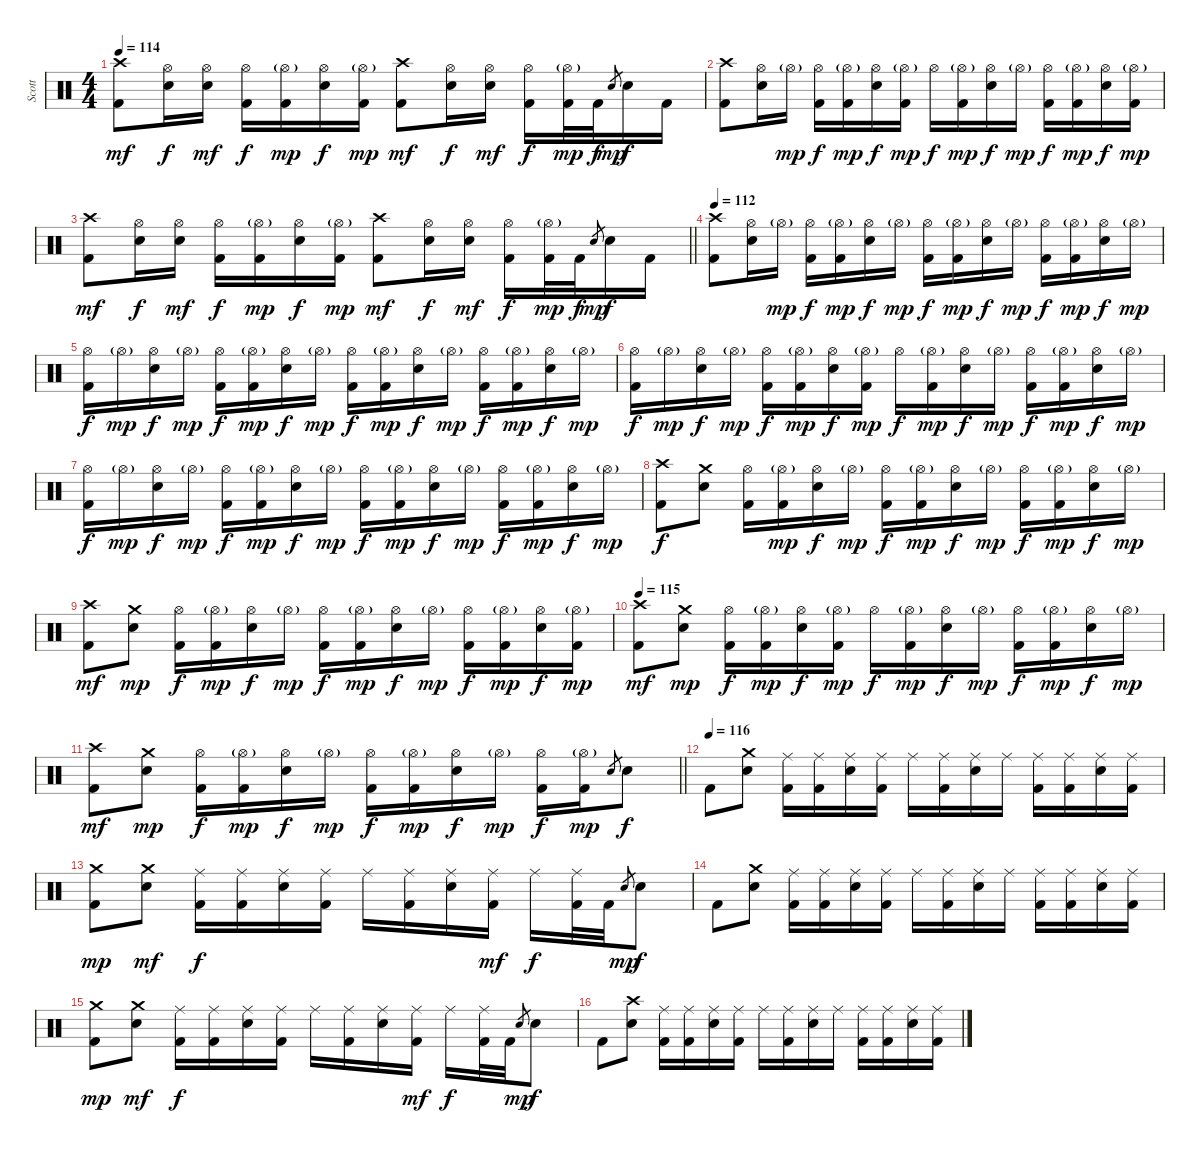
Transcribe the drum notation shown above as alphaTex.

\track ("Scott" "Scott") {instrument percussion}
\staff {score}
\articulation defaults
\ts (4 4)
\tempo 114
\clef neutral
\ks c
("Crash high (hit)" "Kick (hit) 2").8{dy mf} ("Hi-Hat (open)" "Electric Snare (hit)").16{dy f} ("Hi-Hat (open)" "Electric Snare (hit)").16{dy mf} ("Hi-Hat (open)" "Kick (hit) 2").16{dy f} ("Hi-Hat (open)"{g} "Kick (hit) 2").16{dy mp} ("Hi-Hat (open)" "Electric Snare (hit)").16{dy f} ("Hi-Hat (open)"{g} "Kick (hit) 2").16{dy mp} ("Crash high (hit)" "Kick (hit) 2").8{dy mf} ("Hi-Hat (open)" "Electric Snare (hit)").16{dy f} ("Hi-Hat (open)" "Electric Snare (hit)").16{dy mf} ("Hi-Hat (open)" "Kick (hit) 2").16{dy f} ("Hi-Hat (open)"{g} "Kick (hit) 2").32{dy mp} "Kick (hit) 2".32{dy f} "Electric Snare (hit)".8{gr dy mp} "Electric Snare (hit)".16{dy f} "Kick (hit) 2".16 |
("Crash high (hit)" "Kick (hit) 2").8 ("Hi-Hat (open)" "Electric Snare (hit)").16 "Hi-Hat (open)"{g}.16{dy mp} ("Hi-Hat (open)" "Kick (hit) 2").16{dy f} ("Hi-Hat (open)"{g} "Kick (hit) 2").16{dy mp} ("Hi-Hat (open)" "Electric Snare (hit)").16{dy f} ("Hi-Hat (open)"{g} "Kick (hit) 2").16{dy mp} "Hi-Hat (open)".16{dy f} ("Hi-Hat (open)"{g} "Kick (hit) 2").16{dy mp} ("Hi-Hat (open)" "Electric Snare (hit)").16{dy f} "Hi-Hat (open)"{g}.16{dy mp} ("Hi-Hat (open)" "Kick (hit) 2").16{dy f} ("Hi-Hat (open)"{g} "Kick (hit) 2").16{dy mp} ("Hi-Hat (open)" "Electric Snare (hit)").16{dy f} ("Hi-Hat (open)"{g} "Kick (hit) 2").16{dy mp} |
\barLineRight lightlight
("Crash high (hit)" "Kick (hit) 2").8{dy mf} ("Hi-Hat (open)" "Electric Snare (hit)").16{dy f} ("Hi-Hat (open)" "Electric Snare (hit)").16{dy mf} ("Hi-Hat (open)" "Kick (hit) 2").16{dy f} ("Hi-Hat (open)"{g} "Kick (hit) 2").16{dy mp} ("Hi-Hat (open)" "Electric Snare (hit)").16{dy f} ("Hi-Hat (open)"{g} "Kick (hit) 2").16{dy mp} ("Crash high (hit)" "Kick (hit) 2").8{dy mf} ("Hi-Hat (open)" "Electric Snare (hit)").16{dy f} ("Hi-Hat (open)" "Electric Snare (hit)").16{dy mf} ("Hi-Hat (open)" "Kick (hit) 2").16{dy f} ("Hi-Hat (open)"{g} "Kick (hit) 2").32{dy mp} "Kick (hit) 2".32{dy f} "Electric Snare (hit)".8{gr dy mp} "Electric Snare (hit)".16{dy f} "Kick (hit) 2".16 |
\section ("" "")
\tempo 112
("Crash high (hit)" "Kick (hit) 2").8 ("Hi-Hat (open)" "Electric Snare (hit)").16 "Hi-Hat (open)"{g}.16{dy mp} ("Hi-Hat (open)" "Kick (hit) 2").16{dy f} ("Hi-Hat (open)"{g} "Kick (hit) 2").16{dy mp} ("Hi-Hat (open)" "Electric Snare (hit)").16{dy f} "Hi-Hat (open)"{g}.16{dy mp} ("Hi-Hat (open)" "Kick (hit) 2").16{dy f} ("Hi-Hat (open)"{g} "Kick (hit) 2").16{dy mp} ("Hi-Hat (open)" "Electric Snare (hit)").16{dy f} "Hi-Hat (open)"{g}.16{dy mp} ("Hi-Hat (open)" "Kick (hit) 2").16{dy f} ("Hi-Hat (open)"{g} "Kick (hit) 2").16{dy mp} ("Hi-Hat (open)" "Electric Snare (hit)").16{dy f} "Hi-Hat (open)"{g}.16{dy mp} |
("Hi-Hat (open)" "Kick (hit) 2").16{dy f} "Hi-Hat (open)"{g}.16{dy mp} ("Hi-Hat (open)" "Electric Snare (hit)").16{dy f} "Hi-Hat (open)"{g}.16{dy mp} ("Hi-Hat (open)" "Kick (hit) 2").16{dy f} ("Hi-Hat (open)"{g} "Kick (hit) 2").16{dy mp} ("Hi-Hat (open)" "Electric Snare (hit)").16{dy f} "Hi-Hat (open)"{g}.16{dy mp} ("Hi-Hat (open)" "Kick (hit) 2").16{dy f} ("Hi-Hat (open)"{g} "Kick (hit) 2").16{dy mp} ("Hi-Hat (open)" "Electric Snare (hit)").16{dy f} "Hi-Hat (open)"{g}.16{dy mp} ("Hi-Hat (open)" "Kick (hit) 2").16{dy f} ("Hi-Hat (open)"{g} "Kick (hit) 2").16{dy mp} ("Hi-Hat (open)" "Electric Snare (hit)").16{dy f} "Hi-Hat (open)"{g}.16{dy mp} |
("Hi-Hat (open)" "Kick (hit) 2").16{dy f} "Hi-Hat (open)"{g}.16{dy mp} ("Hi-Hat (open)" "Electric Snare (hit)").16{dy f} "Hi-Hat (open)"{g}.16{dy mp} ("Hi-Hat (open)" "Kick (hit) 2").16{dy f} ("Hi-Hat (open)"{g} "Kick (hit) 2").16{dy mp} ("Hi-Hat (open)" "Electric Snare (hit)").16{dy f} ("Hi-Hat (open)"{g} "Kick (hit) 2").16{dy mp} "Hi-Hat (open)".16{dy f} ("Hi-Hat (open)"{g} "Kick (hit) 2").16{dy mp} ("Hi-Hat (open)" "Electric Snare (hit)").16{dy f} "Hi-Hat (open)"{g}.16{dy mp} ("Hi-Hat (open)" "Kick (hit) 2").16{dy f} ("Hi-Hat (open)"{g} "Kick (hit) 2").16{dy mp} ("Hi-Hat (open)" "Electric Snare (hit)").16{dy f} "Hi-Hat (open)"{g}.16{dy mp} |
("Hi-Hat (open)" "Kick (hit) 2").16{dy f} "Hi-Hat (open)"{g}.16{dy mp} ("Hi-Hat (open)" "Electric Snare (hit)").16{dy f} "Hi-Hat (open)"{g}.16{dy mp} ("Hi-Hat (open)" "Kick (hit) 2").16{dy f} ("Hi-Hat (open)"{g} "Kick (hit) 2").16{dy mp} ("Hi-Hat (open)" "Electric Snare (hit)").16{dy f} "Hi-Hat (open)"{g}.16{dy mp} ("Hi-Hat (open)" "Kick (hit) 2").16{dy f} ("Hi-Hat (open)"{g} "Kick (hit) 2").16{dy mp} ("Hi-Hat (open)" "Electric Snare (hit)").16{dy f} "Hi-Hat (open)"{g}.16{dy mp} ("Hi-Hat (open)" "Kick (hit) 2").16{dy f} ("Hi-Hat (open)"{g} "Kick (hit) 2").16{dy mp} ("Hi-Hat (open)" "Electric Snare (hit)").16{dy f} "Hi-Hat (open)"{g}.16{dy mp} |
("Crash high (hit)" "Kick (hit) 2").8{dy f} ("Crash medium (hit)" "Electric Snare (hit)").8 ("Hi-Hat (open)" "Kick (hit) 2").16 ("Hi-Hat (open)"{g} "Kick (hit) 2").16{dy mp} ("Hi-Hat (open)" "Electric Snare (hit)").16{dy f} "Hi-Hat (open)"{g}.16{dy mp} ("Hi-Hat (open)" "Kick (hit) 2").16{dy f} ("Hi-Hat (open)"{g} "Kick (hit) 2").16{dy mp} ("Hi-Hat (open)" "Electric Snare (hit)").16{dy f} "Hi-Hat (open)"{g}.16{dy mp} ("Hi-Hat (open)" "Kick (hit) 2").16{dy f} ("Hi-Hat (open)"{g} "Kick (hit) 2").16{dy mp} ("Hi-Hat (open)" "Electric Snare (hit)").16{dy f} "Hi-Hat (open)"{g}.16{dy mp} |
("Crash high (hit)" "Kick (hit) 2").8{dy mf} ("Crash medium (hit)" "Electric Snare (hit)").8{dy mp} ("Hi-Hat (open)" "Kick (hit) 2").16{dy f} ("Hi-Hat (open)"{g} "Kick (hit) 2").16{dy mp} ("Hi-Hat (open)" "Electric Snare (hit)").16{dy f} "Hi-Hat (open)"{g}.16{dy mp} ("Hi-Hat (open)" "Kick (hit) 2").16{dy f} ("Hi-Hat (open)"{g} "Kick (hit) 2").16{dy mp} ("Hi-Hat (open)" "Electric Snare (hit)").16{dy f} "Hi-Hat (open)"{g}.16{dy mp} ("Hi-Hat (open)" "Kick (hit) 2").16{dy f} ("Hi-Hat (open)"{g} "Kick (hit) 2").16{dy mp} ("Hi-Hat (open)" "Electric Snare (hit)").16{dy f} ("Hi-Hat (open)"{g} "Kick (hit) 2").16{dy mp} |
\tempo 115
("Crash high (hit)" "Kick (hit) 2").8{dy mf} ("Crash medium (hit)" "Electric Snare (hit)").8{dy mp} ("Hi-Hat (open)" "Kick (hit) 2").16{dy f} ("Hi-Hat (open)"{g} "Kick (hit) 2").16{dy mp} ("Hi-Hat (open)" "Electric Snare (hit)").16{dy f} ("Hi-Hat (open)"{g} "Kick (hit) 2").16{dy mp} "Hi-Hat (open)".16{dy f} ("Hi-Hat (open)"{g} "Kick (hit) 2").16{dy mp} ("Hi-Hat (open)" "Electric Snare (hit)").16{dy f} "Hi-Hat (open)"{g}.16{dy mp} ("Hi-Hat (open)" "Kick (hit) 2").16{dy f} ("Hi-Hat (open)"{g} "Kick (hit) 2").16{dy mp} ("Hi-Hat (open)" "Electric Snare (hit)").16{dy f} "Hi-Hat (open)"{g}.16{dy mp} |
\barLineRight lightlight
("Crash high (hit)" "Kick (hit) 2").8{dy mf} ("Crash medium (hit)" "Electric Snare (hit)").8{dy mp} ("Hi-Hat (open)" "Kick (hit) 2").16{dy f} ("Hi-Hat (open)"{g} "Kick (hit) 2").16{dy mp} ("Hi-Hat (open)" "Electric Snare (hit)").16{dy f} "Hi-Hat (open)"{g}.16{dy mp} ("Hi-Hat (open)" "Kick (hit) 2").16{dy f} ("Hi-Hat (open)"{g} "Kick (hit) 2").16{dy mp} ("Hi-Hat (open)" "Electric Snare (hit)").16{dy f} "Hi-Hat (open)"{g}.16{dy mp} ("Hi-Hat (open)" "Kick (hit) 2").16{dy f} ("Hi-Hat (open)"{g} "Kick (hit) 2").16{dy mp} "Electric Snare (hit)".8{gr} "Electric Snare (hit)".8{dy f} |
\section ("" "")
\tempo (116)
"Kick (hit) 2".8 ("Crash medium (hit)" "Electric Snare (hit)").8 ("Ride (middle)" "Kick (hit) 2").16 ("Ride (middle)" "Kick (hit) 2").16 ("Ride (middle)" "Electric Snare (hit)").16 ("Ride (middle)" "Kick (hit) 2").16 "Ride (middle)".16 ("Ride (middle)" "Kick (hit) 2").16 ("Ride (middle)" "Electric Snare (hit)").16 "Ride (middle)".16 ("Ride (middle)" "Kick (hit) 2").16 ("Ride (middle)" "Kick (hit) 2").16 ("Ride (middle)" "Electric Snare (hit)").16 ("Ride (middle)" "Kick (hit) 2").16 |
("Crash medium (hit)" "Kick (hit) 2").8{dy mp} ("Crash medium (hit)" "Electric Snare (hit)").8{dy mf} ("Ride (middle)" "Kick (hit) 2").16{dy f} ("Ride (middle)" "Kick (hit) 2").16 ("Ride (middle)" "Electric Snare (hit)").16 ("Ride (middle)" "Kick (hit) 2").16 "Ride (middle)".16 ("Ride (middle)" "Kick (hit) 2").16 ("Ride (middle)" "Electric Snare (hit)").16 ("Ride (middle)" "Kick (hit) 2").16{dy mf} "Ride (middle)".16{dy f} ("Ride (middle)" "Kick (hit) 2").32 "Kick (hit) 2".32 "Electric Snare (hit)".8{gr dy mp} "Electric Snare (hit)".8{dy f} |
"Kick (hit) 2".8 ("Crash medium (hit)" "Electric Snare (hit)").8 ("Ride (middle)" "Kick (hit) 2").16 ("Ride (middle)" "Kick (hit) 2").16 ("Ride (middle)" "Electric Snare (hit)").16 ("Ride (middle)" "Kick (hit) 2").16 "Ride (middle)".16 ("Ride (middle)" "Kick (hit) 2").16 ("Ride (middle)" "Electric Snare (hit)").16 "Ride (middle)".16 ("Ride (middle)" "Kick (hit) 2").16 ("Ride (middle)" "Kick (hit) 2").16 ("Ride (middle)" "Electric Snare (hit)").16 ("Ride (middle)" "Kick (hit) 2").16 |
("Crash medium (hit)" "Kick (hit) 2").8{dy mp} ("Crash medium (hit)" "Electric Snare (hit)").8{dy mf} ("Ride (middle)" "Kick (hit) 2").16{dy f} ("Ride (middle)" "Kick (hit) 2").16 ("Ride (middle)" "Electric Snare (hit)").16 ("Ride (middle)" "Kick (hit) 2").16 "Ride (middle)".16 ("Ride (middle)" "Kick (hit) 2").16 ("Ride (middle)" "Electric Snare (hit)").16 ("Ride (middle)" "Kick (hit) 2").16{dy mf} "Ride (middle)".16{dy f} ("Ride (middle)" "Kick (hit) 2").32 "Kick (hit) 2".32 "Electric Snare (hit)".8{gr dy mp} "Electric Snare (hit)".8{dy f} |
"Kick (hit) 2".8 ("Crash high (hit)" "Electric Snare (hit)").8 ("Ride (middle)" "Kick (hit) 2").16 ("Ride (middle)" "Kick (hit) 2").16 ("Ride (middle)" "Electric Snare (hit)").16 ("Ride (middle)" "Kick (hit) 2").16 "Ride (middle)".16 ("Ride (middle)" "Kick (hit) 2").16 ("Ride (middle)" "Electric Snare (hit)").16 "Ride (middle)".16 ("Ride (middle)" "Kick (hit) 2").16 ("Ride (middle)" "Kick (hit) 2").16 ("Ride (middle)" "Electric Snare (hit)").16 ("Ride (middle)" "Kick (hit) 2").16
